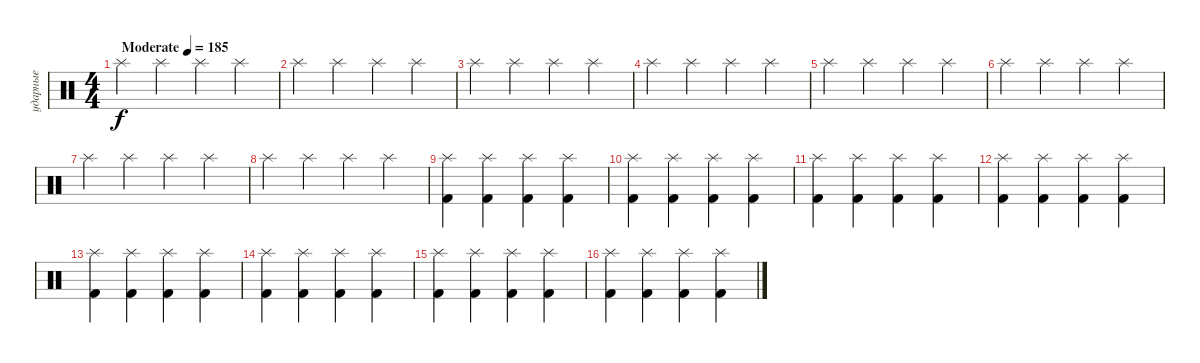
\track ("ударные" "ударные") {instrument percussion}
\staff {score}
\articulation defaults
\ts (4 4)
\tempo (185 "Moderate")
\clef neutral
\ks c "Splash (hit)".4{dy f} "Splash (hit)".4 "Splash (hit)".4 "Splash (hit)".4
|
"Splash (hit)".4 "Splash (hit)".4 "Splash (hit)".4 "Splash (hit)".4 |
"Splash (hit)".4 "Splash (hit)".4 "Splash (hit)".4 "Splash (hit)".4 |
"Splash (hit)".4 "Splash (hit)".4 "Splash (hit)".4 "Splash (hit)".4 |
"Splash (hit)".4 "Splash (hit)".4 "Splash (hit)".4 "Splash (hit)".4 |
"Splash (hit)".4 "Splash (hit)".4 "Splash (hit)".4 "Splash (hit)".4 |
"Splash (hit)".4 "Splash (hit)".4 "Splash (hit)".4 "Splash (hit)".4 |
"Splash (hit)".4 "Splash (hit)".4 "Splash (hit)".4 "Splash (hit)".4 |
("Splash (hit)" "Kick (hit) 2").4 ("Splash (hit)" "Kick (hit) 2").4 ("Splash (hit)" "Kick (hit) 2").4 ("Splash (hit)" "Kick (hit) 2").4 |
("Splash (hit)" "Kick (hit) 2").4 ("Splash (hit)" "Kick (hit) 2").4 ("Splash (hit)" "Kick (hit) 2").4 ("Splash (hit)" "Kick (hit) 2").4 |
("Splash (hit)" "Kick (hit) 2").4 ("Splash (hit)" "Kick (hit) 2").4 ("Splash (hit)" "Kick (hit) 2").4 ("Splash (hit)" "Kick (hit) 2").4 |
("Splash (hit)" "Kick (hit) 2").4 ("Splash (hit)" "Kick (hit) 2").4 ("Splash (hit)" "Kick (hit) 2").4 ("Splash (hit)" "Kick (hit) 2").4 |
("Splash (hit)" "Kick (hit) 2").4 ("Splash (hit)" "Kick (hit) 2").4 ("Splash (hit)" "Kick (hit) 2").4 ("Splash (hit)" "Kick (hit) 2").4 |
("Splash (hit)" "Kick (hit) 2").4 ("Splash (hit)" "Kick (hit) 2").4 ("Splash (hit)" "Kick (hit) 2").4 ("Splash (hit)" "Kick (hit) 2").4 |
("Splash (hit)" "Kick (hit) 2").4 ("Splash (hit)" "Kick (hit) 2").4 ("Splash (hit)" "Kick (hit) 2").4 ("Splash (hit)" "Kick (hit) 2").4 |
("Splash (hit)" "Kick (hit) 2").4 ("Splash (hit)" "Kick (hit) 2").4 ("Splash (hit)" "Kick (hit) 2").4 ("Splash (hit)" "Kick (hit) 2").4
